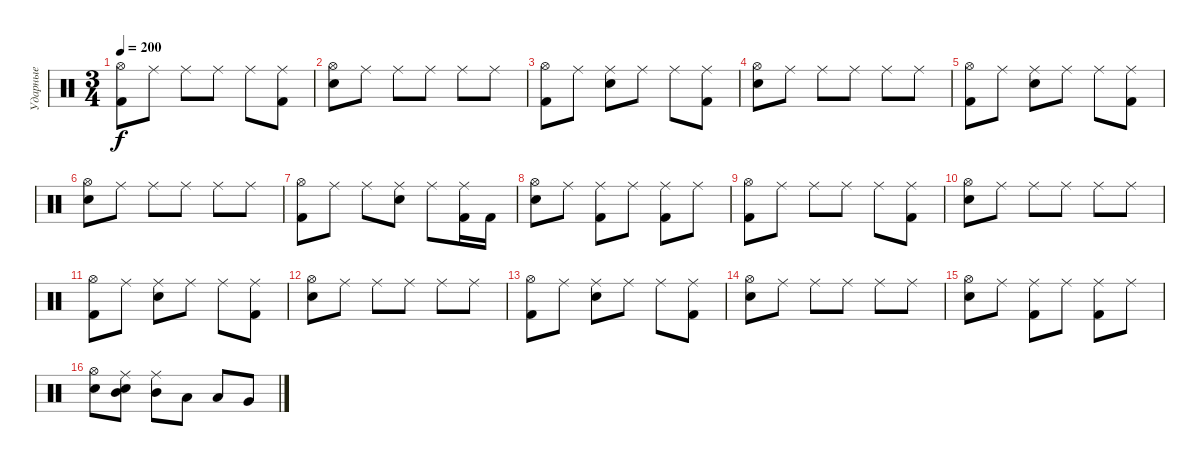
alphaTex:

\track ("Ударные" "Ударные") {instrument percussion}
\staff {score}
\articulation defaults
\ts (3 4)
\tempo 200
\clef neutral
\ks c
("Hi-Hat (open)" "Kick (hit) 2").8{dy f} "Ride (middle)".8 "Ride (middle)".8 "Ride (middle)".8 "Ride (middle)".8 ("Ride (middle)" "Kick (hit) 2").8 |
("Hi-Hat (open)" "Electric Snare (hit)").8 "Ride (middle)".8 "Ride (middle)".8 "Ride (middle)".8 "Ride (middle)".8 "Ride (middle)".8 |
("Hi-Hat (open)" "Kick (hit) 2").8 "Ride (middle)".8 ("Ride (middle)" "Electric Snare (hit)").8 "Ride (middle)".8 "Ride (middle)".8 ("Ride (middle)" "Kick (hit) 2").8 |
("Hi-Hat (open)" "Electric Snare (hit)").8 "Ride (middle)".8 "Ride (middle)".8 "Ride (middle)".8 "Ride (middle)".8 "Ride (middle)".8 |
("Hi-Hat (open)" "Kick (hit) 2").8 "Ride (middle)".8 ("Ride (middle)" "Electric Snare (hit)").8 "Ride (middle)".8 "Ride (middle)".8 ("Ride (middle)" "Kick (hit) 2").8 |
("Hi-Hat (open)" "Electric Snare (hit)").8 "Ride (middle)".8 "Ride (middle)".8 "Ride (middle)".8 "Ride (middle)".8 "Ride (middle)".8 |
("Hi-Hat (open)" "Kick (hit) 2").8 "Ride (middle)".8 "Ride (middle)".8 ("Ride (middle)" "Electric Snare (hit)").8 "Ride (middle)".8 ("Ride (middle)" "Kick (hit) 2").16 "Kick (hit) 2".16 |
("Hi-Hat (open)" "Electric Snare (hit)").8 "Ride (middle)".8 ("Ride (middle)" "Kick (hit) 2").8 "Ride (middle)".8 ("Ride (middle)" "Kick (hit) 2").8 "Ride (middle)".8 |
("Hi-Hat (open)" "Kick (hit) 2").8 "Ride (middle)".8 "Ride (middle)".8 "Ride (middle)".8 "Ride (middle)".8 ("Ride (middle)" "Kick (hit) 2").8 |
("Hi-Hat (open)" "Electric Snare (hit)").8 "Ride (middle)".8 "Ride (middle)".8 "Ride (middle)".8 "Ride (middle)".8 "Ride (middle)".8 |
("Hi-Hat (open)" "Kick (hit) 2").8 "Ride (middle)".8 ("Ride (middle)" "Electric Snare (hit)").8 "Ride (middle)".8 "Ride (middle)".8 ("Ride (middle)" "Kick (hit) 2").8 |
("Hi-Hat (open)" "Electric Snare (hit)").8 "Ride (middle)".8 "Ride (middle)".8 "Ride (middle)".8 "Ride (middle)".8 "Ride (middle)".8 |
("Hi-Hat (open)" "Kick (hit) 2").8 "Ride (middle)".8 ("Ride (middle)" "Electric Snare (hit)").8 "Ride (middle)".8 "Ride (middle)".8 ("Ride (middle)" "Kick (hit) 2").8 |
("Hi-Hat (open)" "Electric Snare (hit)").8 "Ride (middle)".8 "Ride (middle)".8 "Ride (middle)".8 "Ride (middle)".8 "Ride (middle)".8 |
("Hi-Hat (open)" "Electric Snare (hit)").8 "Ride (middle)".8 ("Ride (middle)" "Kick (hit) 2").8 "Ride (middle)".8 ("Ride (middle)" "Kick (hit) 2").8 "Ride (middle)".8 |
("Hi-Hat (open)" "Electric Snare (hit)").8 ("Ride (middle)" "Electric Snare (hit)" "Mid Tom (hit)").8 ("Ride (middle)" "Mid Tom (hit)").8 "Low Tom (hit)".8 "Low Tom (hit)".8 "Very Low Tom (hit)".8
